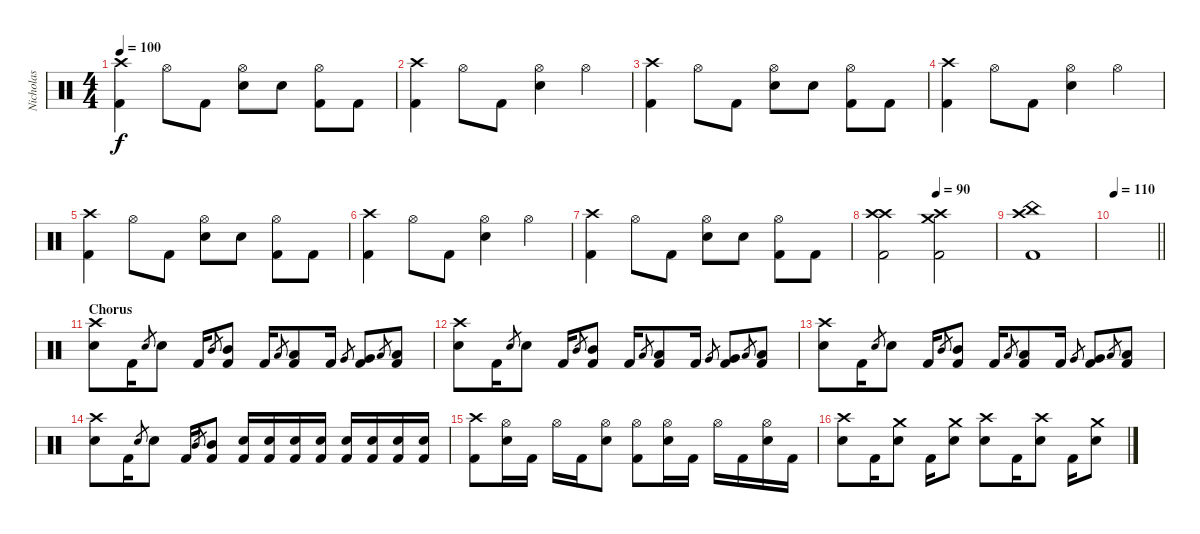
\track ("Nicholas" "Nicholas") {instrument percussion}
\staff {score}
\articulation defaults
\ts (4 4)
\tempo 100
\clef neutral
\ks c
("Crash high (hit)" "Kick (hit) 2").4{dy f} "Hi-Hat (open)".8 "Kick (hit) 2".8 ("Hi-Hat (open)" "Snare (hit) 2").8 "Snare (hit) 2".8 ("Hi-Hat (open)" "Kick (hit) 2").8 "Kick (hit) 2".8 |
("Crash high (hit)" "Kick (hit) 2").4 "Hi-Hat (open)".8 "Kick (hit) 2".8 ("Hi-Hat (open)" "Snare (hit) 2").4 "Hi-Hat (open)".4 |
("Crash high (hit)" "Kick (hit) 2").4 "Hi-Hat (open)".8 "Kick (hit) 2".8 ("Hi-Hat (open)" "Snare (hit) 2").8 "Snare (hit) 2".8 ("Hi-Hat (open)" "Kick (hit) 2").8 "Kick (hit) 2".8 |
("Crash high (hit)" "Kick (hit) 2").4 "Hi-Hat (open)".8 "Kick (hit) 2".8 ("Hi-Hat (open)" "Snare (hit) 2").4 "Hi-Hat (open)".4 |
("Crash high (hit)" "Kick (hit) 2").4 "Hi-Hat (open)".8 "Kick (hit) 2".8 ("Hi-Hat (open)" "Snare (hit) 2").8 "Snare (hit) 2".8 ("Hi-Hat (open)" "Kick (hit) 2").8 "Kick (hit) 2".8 |
("Crash high (hit)" "Kick (hit) 2").4 "Hi-Hat (open)".8 "Kick (hit) 2".8 ("Hi-Hat (open)" "Snare (hit) 2").4 "Hi-Hat (open)".4 |
("Crash high (hit)" "Kick (hit) 2").4 "Hi-Hat (open)".8 "Kick (hit) 2".8 ("Hi-Hat (open)" "Snare (hit) 2").8 "Snare (hit) 2".8 ("Hi-Hat (open)" "Kick (hit) 2").8 "Kick (hit) 2".8 |
\tempo (90 0.5)
("Crash high (hit)" "Crash high (hit)" "Kick (hit) 2").2 ("Crash high (hit)" "Crash medium (hit)" "Kick (hit) 2").2 |
("Crash high (hit)" "China (hit)" "Kick (hit) 2").1 |
\tempo 110
\barLineRight lightlight
|
\section ("" "Chorus")
("Crash high (hit)" "Snare (hit) 2").8 "Kick (hit) 2".16 "Snare (hit) 2".8{gr} "Snare (hit) 2".8 "Kick (hit) 2".16 "Mid Tom (hit)".8{gr} ("Kick (hit) 2" "Mid Tom (hit)").8 "Kick (hit) 2".16 "Low Tom (hit)".8{gr} ("Kick (hit) 2" "Low Tom (hit)").8 "Kick (hit) 2".16 "Very Low Tom (hit)".8{gr} ("Kick (hit) 2" "Very Low Tom (hit)").8 "Low Floor Tom (hit)".8{gr} ("Kick (hit) 2" "Low Floor Tom (hit)").8 |
("Crash high (hit)" "Snare (hit) 2").8 "Kick (hit) 2".16 "Snare (hit) 2".8{gr} "Snare (hit) 2".8 "Kick (hit) 2".16 "Mid Tom (hit)".8{gr} ("Kick (hit) 2" "Mid Tom (hit)").8 "Kick (hit) 2".16 "Low Tom (hit)".8{gr} ("Kick (hit) 2" "Low Tom (hit)").8 "Kick (hit) 2".16 "Very Low Tom (hit)".8{gr} ("Kick (hit) 2" "Very Low Tom (hit)").8 "Low Floor Tom (hit)".8{gr} ("Kick (hit) 2" "Low Floor Tom (hit)").8 |
("Crash high (hit)" "Snare (hit) 2").8 "Kick (hit) 2".16 "Snare (hit) 2".8{gr} "Snare (hit) 2".8 "Kick (hit) 2".16 "Mid Tom (hit)".8{gr} ("Kick (hit) 2" "Mid Tom (hit)").8 "Kick (hit) 2".16 "Low Tom (hit)".8{gr} ("Kick (hit) 2" "Low Tom (hit)").8 "Kick (hit) 2".16 "Very Low Tom (hit)".8{gr} ("Kick (hit) 2" "Very Low Tom (hit)").8 "Low Floor Tom (hit)".8{gr} ("Kick (hit) 2" "Low Floor Tom (hit)").8 |
("Crash high (hit)" "Snare (hit) 2").8 "Kick (hit) 2".16 "Snare (hit) 2".8{gr} "Snare (hit) 2".8 "Kick (hit) 2".16 "Mid Tom (hit)".8{gr} ("Kick (hit) 2" "Mid Tom (hit)").8 ("Kick (hit) 2" "Snare (hit) 2").16 ("Kick (hit) 2" "Snare (hit) 2").16 ("Kick (hit) 2" "Snare (hit) 2").16 ("Kick (hit) 2" "Snare (hit) 2").16 ("Kick (hit) 2" "Snare (hit) 2").16 ("Kick (hit) 2" "Snare (hit) 2").16 ("Kick (hit) 2" "Snare (hit) 2").16 ("Kick (hit) 2" "Snare (hit) 2").16 |
("Crash high (hit)" "Kick (hit) 2").8 ("Hi-Hat (open)" "Snare (hit) 2").16 "Kick (hit) 2".16 "Hi-Hat (open)".16 "Kick (hit) 2".16 ("Hi-Hat (open)" "Snare (hit) 2").8 ("Hi-Hat (open)" "Kick (hit) 2").8 ("Hi-Hat (open)" "Snare (hit) 2").16 "Kick (hit) 2".16 "Hi-Hat (open)".16 "Kick (hit) 2".16 ("Hi-Hat (open)" "Snare (hit) 2").16 "Kick (hit) 2".16 |
("Crash high (hit)" "Snare (hit) 2").8 "Kick (hit) 2".16 ("Crash medium (hit)" "Snare (hit) 2").8 "Kick (hit) 2".16 ("Crash medium (hit)" "Snare (hit) 2").8 ("Crash high (hit)" "Snare (hit) 2").8 "Kick (hit) 2".16 ("Crash high (hit)" "Snare (hit) 2").8 "Kick (hit) 2".16 ("Crash medium (hit)" "Snare (hit) 2").8
